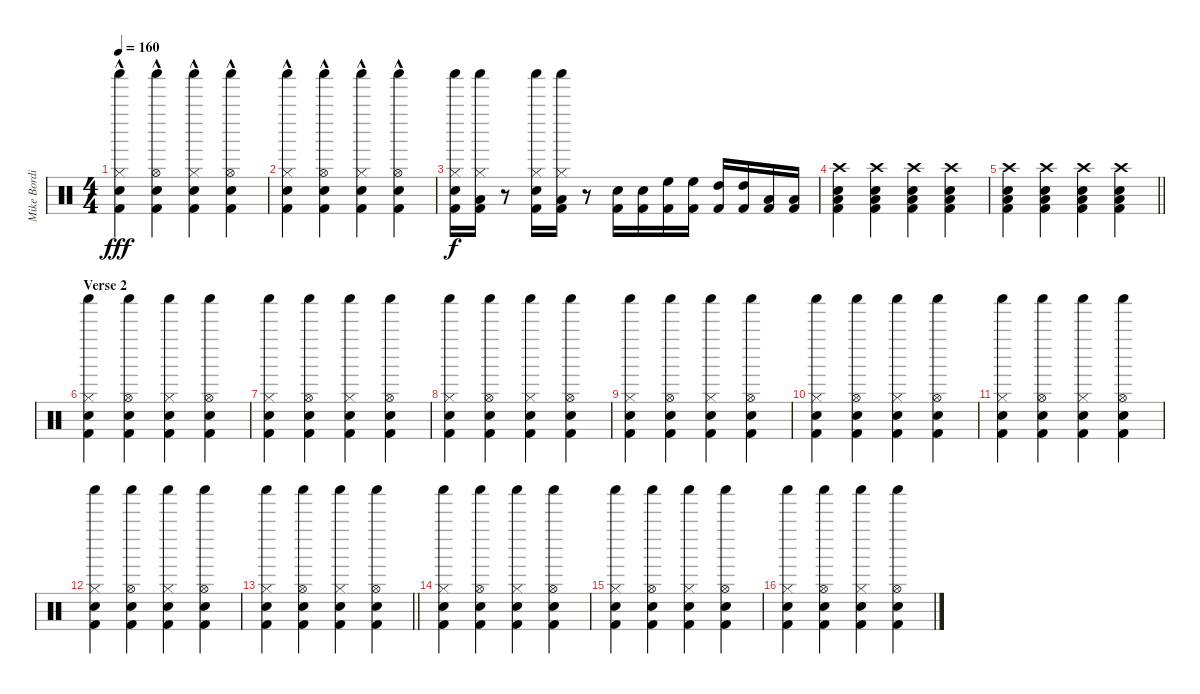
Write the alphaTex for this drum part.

\track ("Mike Bordin - Percussion" "Mike Bordi") {instrument percussion}
\staff {score}
\articulation defaults
\ts (4 4)
\tempo 160
\clef neutral
\ks c
("Shaker (hit)" "Snare (hit) 2" "Hi-Hat (closed)"{hac} "Kick (hit) 2").4{dy fff} ("Shaker (hit)" "Snare (hit) 2" "Hi-Hat (open)"{hac} "Kick (hit) 2").4 ("Shaker (hit)" "Snare (hit) 2" "Hi-Hat (closed)"{hac} "Kick (hit) 2").4 ("Shaker (hit)" "Snare (hit) 2" "Hi-Hat (open)"{hac} "Kick (hit) 2").4 |
("Shaker (hit)" "Snare (hit) 2" "Hi-Hat (closed)"{hac} "Kick (hit) 2").4 ("Shaker (hit)" "Snare (hit) 2" "Hi-Hat (open)"{hac} "Kick (hit) 2").4 ("Shaker (hit)" "Snare (hit) 2" "Hi-Hat (closed)"{hac} "Kick (hit) 2").4 ("Shaker (hit)" "Snare (hit) 2" "Hi-Hat (open)"{hac} "Kick (hit) 2").4 |
("Snare (hit) 2" "Hi-Hat (closed)" "Shaker (hit)" "Kick (hit) 2").16{dy f} ("Low Tom (hit)" "Hi-Hat (closed)" "Shaker (hit)" "Kick (hit) 2").16 r.8 ("Snare (hit) 2" "Hi-Hat (closed)" "Shaker (hit)" "Kick (hit) 2").16 ("Low Tom (hit)" "Hi-Hat (closed)" "Shaker (hit)" "Kick (hit) 2").16 r.8 ("Snare (hit) 2" "Kick (hit) 2").16 ("Snare (hit) 2" "Kick (hit) 2").16 ("High Floor Tom (hit)" "Kick (hit) 2").16 ("High Floor Tom (hit)" "Kick (hit) 2").16 ("High Tom (hit)" "Kick (hit) 2").16 ("High Tom (hit)" "Kick (hit) 2").16 ("Low Floor Tom (hit)" "Kick (hit) 2").16 ("Low Floor Tom (hit)" "Kick (hit) 2").16 |
("Crash high (hit)" "Snare (hit) 2" "Low Floor Tom (hit)" "Kick (hit) 2").4 ("Crash high (hit)" "Snare (hit) 2" "Low Floor Tom (hit)" "Kick (hit) 2").4 ("Crash high (hit)" "Snare (hit) 2" "Low Floor Tom (hit)" "Kick (hit) 2").4 ("Crash high (hit)" "Snare (hit) 2" "Low Floor Tom (hit)" "Kick (hit) 2").4 |
\barLineRight lightlight
("Crash high (hit)" "Snare (hit) 2" "Low Floor Tom (hit)" "Kick (hit) 2").4 ("Crash high (hit)" "Snare (hit) 2" "Low Floor Tom (hit)" "Kick (hit) 2").4 ("Crash high (hit)" "Snare (hit) 2" "Low Floor Tom (hit)" "Kick (hit) 2").4 ("Crash high (hit)" "Snare (hit) 2" "Low Floor Tom (hit)" "Kick (hit) 2").4 |
\section ("" "Verse 2")
("Shaker (hit)" "Snare (hit) 2" "Hi-Hat (closed)" "Kick (hit) 2").4 ("Shaker (hit)" "Snare (hit) 2" "Hi-Hat (open)" "Kick (hit) 2").4 ("Shaker (hit)" "Snare (hit) 2" "Hi-Hat (closed)" "Kick (hit) 2").4 ("Shaker (hit)" "Snare (hit) 2" "Hi-Hat (open)" "Kick (hit) 2").4 |
("Shaker (hit)" "Snare (hit) 2" "Hi-Hat (closed)" "Kick (hit) 2").4 ("Shaker (hit)" "Snare (hit) 2" "Hi-Hat (open)" "Kick (hit) 2").4 ("Shaker (hit)" "Snare (hit) 2" "Hi-Hat (closed)" "Kick (hit) 2").4 ("Shaker (hit)" "Snare (hit) 2" "Hi-Hat (open)" "Kick (hit) 2").4 |
("Shaker (hit)" "Snare (hit) 2" "Hi-Hat (closed)" "Kick (hit) 2").4 ("Shaker (hit)" "Snare (hit) 2" "Hi-Hat (open)" "Kick (hit) 2").4 ("Shaker (hit)" "Snare (hit) 2" "Hi-Hat (closed)" "Kick (hit) 2").4 ("Shaker (hit)" "Snare (hit) 2" "Hi-Hat (open)" "Kick (hit) 2").4 |
("Shaker (hit)" "Snare (hit) 2" "Hi-Hat (closed)" "Kick (hit) 2").4 ("Shaker (hit)" "Snare (hit) 2" "Hi-Hat (open)" "Kick (hit) 2").4 ("Shaker (hit)" "Snare (hit) 2" "Hi-Hat (closed)" "Kick (hit) 2").4 ("Shaker (hit)" "Snare (hit) 2" "Hi-Hat (open)" "Kick (hit) 2").4 |
("Shaker (hit)" "Snare (hit) 2" "Hi-Hat (closed)" "Kick (hit) 2").4 ("Shaker (hit)" "Snare (hit) 2" "Hi-Hat (open)" "Kick (hit) 2").4 ("Shaker (hit)" "Snare (hit) 2" "Hi-Hat (closed)" "Kick (hit) 2").4 ("Shaker (hit)" "Snare (hit) 2" "Hi-Hat (open)" "Kick (hit) 2").4 |
("Shaker (hit)" "Snare (hit) 2" "Hi-Hat (closed)" "Kick (hit) 2").4 ("Shaker (hit)" "Snare (hit) 2" "Hi-Hat (open)" "Kick (hit) 2").4 ("Shaker (hit)" "Snare (hit) 2" "Hi-Hat (closed)" "Kick (hit) 2").4 ("Shaker (hit)" "Snare (hit) 2" "Hi-Hat (open)" "Kick (hit) 2").4 |
("Shaker (hit)" "Snare (hit) 2" "Hi-Hat (closed)" "Kick (hit) 2").4 ("Shaker (hit)" "Snare (hit) 2" "Hi-Hat (open)" "Kick (hit) 2").4 ("Shaker (hit)" "Snare (hit) 2" "Hi-Hat (closed)" "Kick (hit) 2").4 ("Shaker (hit)" "Snare (hit) 2" "Hi-Hat (open)" "Kick (hit) 2").4 |
\barLineRight lightlight
("Shaker (hit)" "Snare (hit) 2" "Hi-Hat (closed)" "Kick (hit) 2").4 ("Shaker (hit)" "Snare (hit) 2" "Hi-Hat (open)" "Kick (hit) 2").4 ("Shaker (hit)" "Snare (hit) 2" "Hi-Hat (closed)" "Kick (hit) 2").4 ("Shaker (hit)" "Snare (hit) 2" "Hi-Hat (open)" "Kick (hit) 2").4 |
\section ("" "")
("Shaker (hit)" "Snare (hit) 2" "Hi-Hat (closed)" "Kick (hit) 2").4 ("Shaker (hit)" "Snare (hit) 2" "Hi-Hat (open)" "Kick (hit) 2").4 ("Shaker (hit)" "Snare (hit) 2" "Hi-Hat (closed)" "Kick (hit) 2").4 ("Shaker (hit)" "Snare (hit) 2" "Hi-Hat (open)" "Kick (hit) 2").4 |
("Shaker (hit)" "Snare (hit) 2" "Hi-Hat (closed)" "Kick (hit) 2").4 ("Shaker (hit)" "Snare (hit) 2" "Hi-Hat (open)" "Kick (hit) 2").4 ("Shaker (hit)" "Snare (hit) 2" "Hi-Hat (closed)" "Kick (hit) 2").4 ("Shaker (hit)" "Snare (hit) 2" "Hi-Hat (open)" "Kick (hit) 2").4 |
("Shaker (hit)" "Snare (hit) 2" "Hi-Hat (closed)" "Kick (hit) 2").4 ("Shaker (hit)" "Snare (hit) 2" "Hi-Hat (open)" "Kick (hit) 2").4 ("Shaker (hit)" "Snare (hit) 2" "Hi-Hat (closed)" "Kick (hit) 2").4 ("Shaker (hit)" "Snare (hit) 2" "Hi-Hat (open)" "Kick (hit) 2").4
